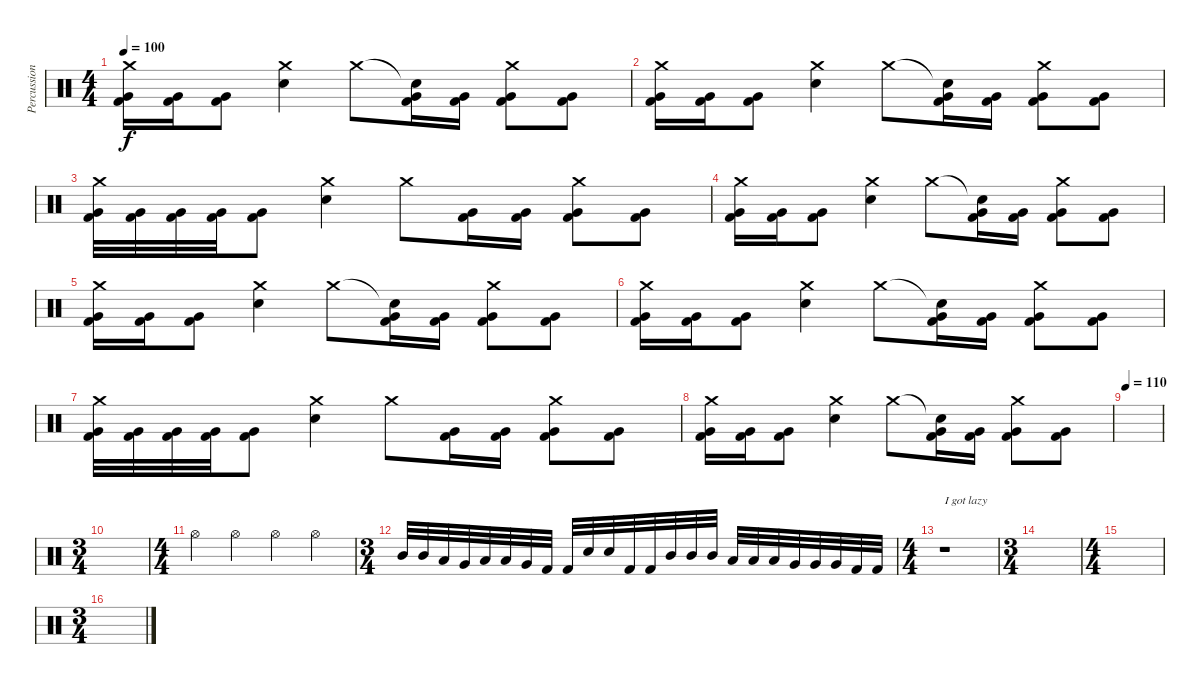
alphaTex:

\track ("Percussion" "Percussion") {instrument percussion}
\staff {score}
\articulation defaults
\ts (4 4)
\tempo 100
\clef neutral
\ks c
("Crash medium (hit)" "Very Low Tom (hit)" "Kick (hit) 2").16{dy f} ("Very Low Tom (hit)" "Kick (hit) 2").16 ("Very Low Tom (hit)" "Kick (hit) 2").8 ("Crash medium (hit)" "Electric Snare (hit)").4 "Crash medium (hit)".8 ("Snare (hit)"{t} "Very Low Tom (hit)" "Kick (hit) 2").16 ("Very Low Tom (hit)" "Kick (hit) 2").16 ("Crash medium (hit)" "Very Low Tom (hit)" "Kick (hit) 2").8 ("Very Low Tom (hit)" "Kick (hit) 2").8 |
("Crash medium (hit)" "Very Low Tom (hit)" "Kick (hit) 2").16 ("Very Low Tom (hit)" "Kick (hit) 2").16 ("Very Low Tom (hit)" "Kick (hit) 2").8 ("Crash medium (hit)" "Electric Snare (hit)").4 "Crash medium (hit)".8 ("Snare (hit)"{t} "Very Low Tom (hit)" "Kick (hit) 2").16 ("Very Low Tom (hit)" "Kick (hit) 2").16 ("Crash medium (hit)" "Very Low Tom (hit)" "Kick (hit) 2").8 ("Very Low Tom (hit)" "Kick (hit) 2").8 |
("Crash medium (hit)" "Very Low Tom (hit)" "Kick (hit) 2").32 ("Very Low Tom (hit)" "Kick (hit) 2").32 ("Very Low Tom (hit)" "Kick (hit) 2").32 ("Very Low Tom (hit)" "Kick (hit) 2").32 ("Very Low Tom (hit)" "Kick (hit) 2").8 ("Crash medium (hit)" "Electric Snare (hit)").4 "Crash medium (hit)".8 ("Very Low Tom (hit)" "Kick (hit) 2").16 ("Very Low Tom (hit)" "Kick (hit) 2").16 ("Crash medium (hit)" "Very Low Tom (hit)" "Kick (hit) 2").8 ("Very Low Tom (hit)" "Kick (hit) 2").8 |
("Crash medium (hit)" "Very Low Tom (hit)" "Kick (hit) 2").16 ("Very Low Tom (hit)" "Kick (hit) 2").16 ("Very Low Tom (hit)" "Kick (hit) 2").8 ("Crash medium (hit)" "Electric Snare (hit)").4 "Crash medium (hit)".8 ("Snare (hit)"{t} "Very Low Tom (hit)" "Kick (hit) 2").16 ("Very Low Tom (hit)" "Kick (hit) 2").16 ("Crash medium (hit)" "Very Low Tom (hit)" "Kick (hit) 2").8 ("Very Low Tom (hit)" "Kick (hit) 2").8 |
("Crash medium (hit)" "Very Low Tom (hit)" "Kick (hit) 2").16 ("Very Low Tom (hit)" "Kick (hit) 2").16 ("Very Low Tom (hit)" "Kick (hit) 2").8 ("Crash medium (hit)" "Electric Snare (hit)").4 "Crash medium (hit)".8 ("Snare (hit)"{t} "Very Low Tom (hit)" "Kick (hit) 2").16 ("Very Low Tom (hit)" "Kick (hit) 2").16 ("Crash medium (hit)" "Very Low Tom (hit)" "Kick (hit) 2").8 ("Very Low Tom (hit)" "Kick (hit) 2").8 |
("Crash medium (hit)" "Very Low Tom (hit)" "Kick (hit) 2").16 ("Very Low Tom (hit)" "Kick (hit) 2").16 ("Very Low Tom (hit)" "Kick (hit) 2").8 ("Crash medium (hit)" "Electric Snare (hit)").4 "Crash medium (hit)".8 ("Snare (hit)"{t} "Very Low Tom (hit)" "Kick (hit) 2").16 ("Very Low Tom (hit)" "Kick (hit) 2").16 ("Crash medium (hit)" "Very Low Tom (hit)" "Kick (hit) 2").8 ("Very Low Tom (hit)" "Kick (hit) 2").8 |
("Crash medium (hit)" "Very Low Tom (hit)" "Kick (hit) 2").32 ("Very Low Tom (hit)" "Kick (hit) 2").32 ("Very Low Tom (hit)" "Kick (hit) 2").32 ("Very Low Tom (hit)" "Kick (hit) 2").32 ("Very Low Tom (hit)" "Kick (hit) 2").8 ("Crash medium (hit)" "Electric Snare (hit)").4 "Crash medium (hit)".8 ("Very Low Tom (hit)" "Kick (hit) 2").16 ("Very Low Tom (hit)" "Kick (hit) 2").16 ("Crash medium (hit)" "Very Low Tom (hit)" "Kick (hit) 2").8 ("Very Low Tom (hit)" "Kick (hit) 2").8 |
("Crash medium (hit)" "Very Low Tom (hit)" "Kick (hit) 2").16 ("Very Low Tom (hit)" "Kick (hit) 2").16 ("Very Low Tom (hit)" "Kick (hit) 2").8 ("Crash medium (hit)" "Electric Snare (hit)").4 "Crash medium (hit)".8 ("Snare (hit)"{t} "Very Low Tom (hit)" "Kick (hit) 2").16 ("Very Low Tom (hit)" "Kick (hit) 2").16 ("Crash medium (hit)" "Very Low Tom (hit)" "Kick (hit) 2").8 ("Very Low Tom (hit)" "Kick (hit) 2").8 |
\tempo 110
|
\ts (3 4)
|
\ts (4 4)
"Hi-Hat (open)".4 "Hi-Hat (open)".4 "Hi-Hat (open)".4 "Hi-Hat (open)".4 |
\ts (3 4)
"Mid Tom (hit)".32 "Mid Tom (hit)".32 "Low Tom (hit)".32 "Very Low Tom (hit)".32 "Low Tom (hit)".32 "Low Tom (hit)".32 "Very Low Tom (hit)".32 "Kick (hit) 2".32 "Kick (hit) 2".32 "Electric Snare (hit)".32 "Electric Snare (hit)".32 "Kick (hit) 2".32 "Kick (hit) 2".32 "Mid Tom (hit)".32 "Mid Tom (hit)".32 "Mid Tom (hit)".32 "Low Tom (hit)".32 "Low Tom (hit)".32 "Low Tom (hit)".32 "Very Low Tom (hit)".32 "Very Low Tom (hit)".32 "Very Low Tom (hit)".32 "Kick (hit) 2".32 "Kick (hit) 2".32 |
\ts (4 4)
r.1{txt "I got lazy"} |
\ts (3 4)
|
\ts (4 4)
|
\ts (3 4)
